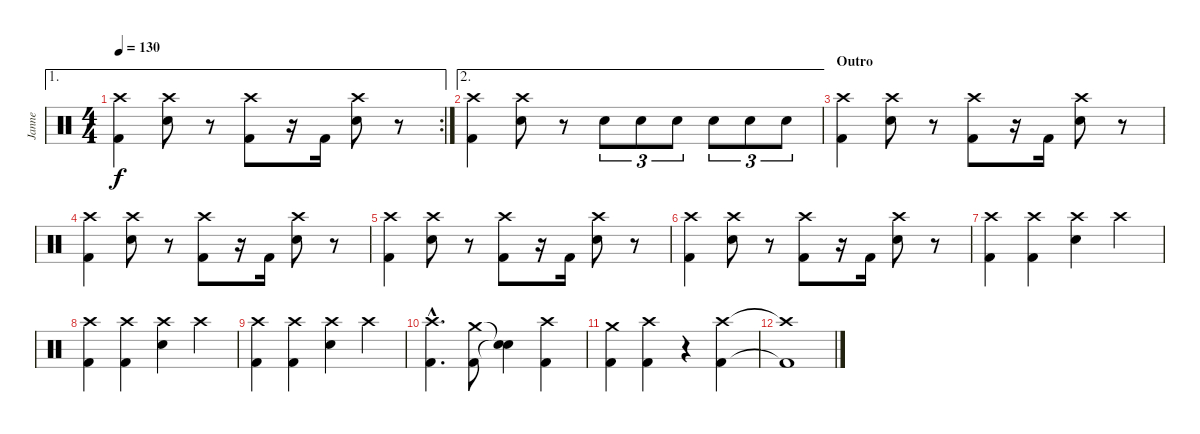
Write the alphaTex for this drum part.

\track ("Janne" "Janne") {instrument percussion}
\staff {score}
\articulation defaults
\ae 1
\rc 2
\ts (4 4)
\tempo 130
\clef neutral
\ks c
("Crash high (hit)" "Kick (hit) 2").4{dy f} ("Crash high (hit)" "Electric Snare (hit)").8 r.8 ("Crash high (hit)" "Kick (hit) 2").8 r.16 "Kick (hit) 2".16 ("Crash high (hit)" "Electric Snare (hit)").8 r.8 |
\ae 2
("Crash high (hit)" "Kick (hit) 2").4 ("Crash high (hit)" "Electric Snare (hit)").8 r.8 "Electric Snare (hit)".8{tu (3 2)} "Electric Snare (hit)".8{tu (3 2)} "Electric Snare (hit)".8{tu (3 2)} "Electric Snare (hit)".8{tu (3 2)} "Electric Snare (hit)".8{tu (3 2)} "Electric Snare (hit)".8{tu (3 2)} |
\section ("" "Outro")
("Crash high (hit)" "Kick (hit) 2").4 ("Crash high (hit)" "Electric Snare (hit)").8 r.8 ("Crash high (hit)" "Kick (hit) 2").8 r.16 "Kick (hit) 2".16 ("Crash high (hit)" "Electric Snare (hit)").8 r.8 |
("Crash high (hit)" "Kick (hit) 2").4 ("Crash high (hit)" "Electric Snare (hit)").8 r.8 ("Crash high (hit)" "Kick (hit) 2").8 r.16 "Kick (hit) 2".16 ("Crash high (hit)" "Electric Snare (hit)").8 r.8 |
("Crash high (hit)" "Kick (hit) 2").4 ("Crash high (hit)" "Electric Snare (hit)").8 r.8 ("Crash high (hit)" "Kick (hit) 2").8 r.16 "Kick (hit) 2".16 ("Crash high (hit)" "Electric Snare (hit)").8 r.8 |
("Crash high (hit)" "Kick (hit) 2").4 ("Crash high (hit)" "Electric Snare (hit)").8 r.8 ("Crash high (hit)" "Kick (hit) 2").8 r.16 "Kick (hit) 2".16 ("Crash high (hit)" "Electric Snare (hit)").8 r.8 |
("Crash high (hit)" "Kick (hit) 2").4 ("Crash high (hit)" "Kick (hit) 2").4 ("Crash high (hit)" "Electric Snare (hit)").4 "Crash high (hit)".4 |
("Crash high (hit)" "Kick (hit) 2").4 ("Crash high (hit)" "Kick (hit) 2").4 ("Crash high (hit)" "Electric Snare (hit)").4 "Crash high (hit)".4 |
("Crash high (hit)" "Kick (hit) 2").4 ("Crash high (hit)" "Kick (hit) 2").4 ("Crash high (hit)" "Electric Snare (hit)").4 "Crash high (hit)".4 |
("Crash high (hit)"{hac} "Kick (hit) 2"{hac}).4{d} ("Crash medium (hit)" "Kick (hit) 2").8 ("Snare (hit)"{t} "Snare (hit)"{t}).4 ("Crash high (hit)" "Kick (hit) 2").4 |
("Crash medium (hit)" "Kick (hit) 2").4 ("Crash high (hit)" "Kick (hit) 2").4 r.4 ("Crash high (hit)" "Kick (hit) 2").4 |
("Crash high (hit)"{t} "Kick (hit) 2"{t}).1
